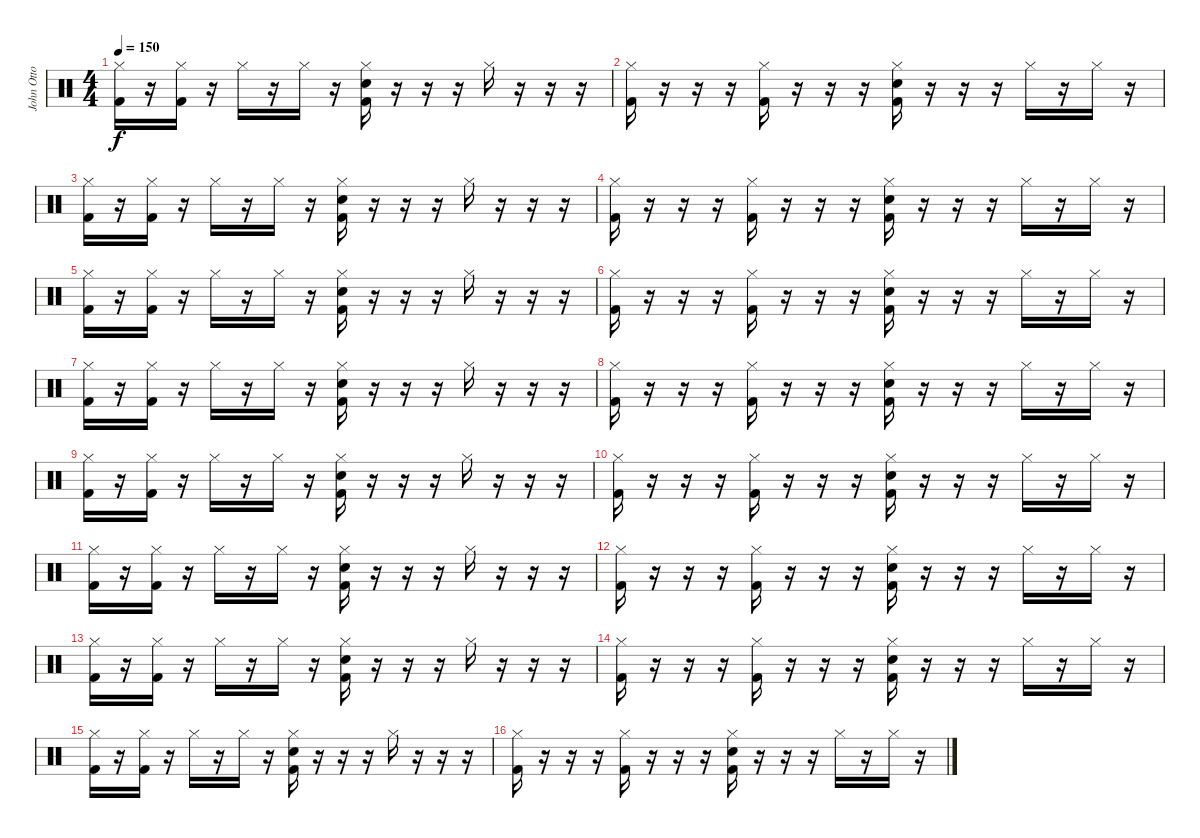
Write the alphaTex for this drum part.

\track ("John Otto" "John Otto") {instrument percussion}
\staff {score}
\articulation defaults
\ts (4 4)
\tempo 150
\clef neutral
\ks c
("Hi-Hat (closed)" "Kick (hit) 2").16{dy f} r.16 ("Hi-Hat (closed)" "Kick (hit) 2").16 r.16 "Hi-Hat (closed)".16 r.16 "Hi-Hat (closed)".16 r.16 ("Hi-Hat (closed)" "Snare (hit) 2" "Kick (hit) 2").16 r.16 r.16 r.16 "Hi-Hat (closed)".16 r.16 r.16 r.16 |
("Hi-Hat (closed)" "Kick (hit) 2").16 r.16 r.16 r.16 ("Hi-Hat (closed)" "Kick (hit) 2").16 r.16 r.16 r.16 ("Hi-Hat (closed)" "Snare (hit) 2" "Kick (hit) 2").16 r.16 r.16 r.16 "Hi-Hat (closed)".16 r.16 "Hi-Hat (closed)".16 r.16 |
("Hi-Hat (closed)" "Kick (hit) 2").16 r.16 ("Hi-Hat (closed)" "Kick (hit) 2").16 r.16 "Hi-Hat (closed)".16 r.16 "Hi-Hat (closed)".16 r.16 ("Hi-Hat (closed)" "Snare (hit) 2" "Kick (hit) 2").16 r.16 r.16 r.16 "Hi-Hat (closed)".16 r.16 r.16 r.16 |
("Hi-Hat (closed)" "Kick (hit) 2").16 r.16 r.16 r.16 ("Hi-Hat (closed)" "Kick (hit) 2").16 r.16 r.16 r.16 ("Hi-Hat (closed)" "Snare (hit) 2" "Kick (hit) 2").16 r.16 r.16 r.16 "Hi-Hat (closed)".16 r.16 "Hi-Hat (closed)".16 r.16 |
("Hi-Hat (closed)" "Kick (hit) 2").16 r.16 ("Hi-Hat (closed)" "Kick (hit) 2").16 r.16 "Hi-Hat (closed)".16 r.16 "Hi-Hat (closed)".16 r.16 ("Hi-Hat (closed)" "Snare (hit) 2" "Kick (hit) 2").16 r.16 r.16 r.16 "Hi-Hat (closed)".16 r.16 r.16 r.16 |
("Hi-Hat (closed)" "Kick (hit) 2").16 r.16 r.16 r.16 ("Hi-Hat (closed)" "Kick (hit) 2").16 r.16 r.16 r.16 ("Hi-Hat (closed)" "Snare (hit) 2" "Kick (hit) 2").16 r.16 r.16 r.16 "Hi-Hat (closed)".16 r.16 "Hi-Hat (closed)".16 r.16 |
("Hi-Hat (closed)" "Kick (hit) 2").16 r.16 ("Hi-Hat (closed)" "Kick (hit) 2").16 r.16 "Hi-Hat (closed)".16 r.16 "Hi-Hat (closed)".16 r.16 ("Hi-Hat (closed)" "Snare (hit) 2" "Kick (hit) 2").16 r.16 r.16 r.16 "Hi-Hat (closed)".16 r.16 r.16 r.16 |
("Hi-Hat (closed)" "Kick (hit) 2").16 r.16 r.16 r.16 ("Hi-Hat (closed)" "Kick (hit) 2").16 r.16 r.16 r.16 ("Hi-Hat (closed)" "Snare (hit) 2" "Kick (hit) 2").16 r.16 r.16 r.16 "Hi-Hat (closed)".16 r.16 "Hi-Hat (closed)".16 r.16 |
("Hi-Hat (closed)" "Kick (hit) 2").16 r.16 ("Hi-Hat (closed)" "Kick (hit) 2").16 r.16 "Hi-Hat (closed)".16 r.16 "Hi-Hat (closed)".16 r.16 ("Hi-Hat (closed)" "Snare (hit) 2" "Kick (hit) 2").16 r.16 r.16 r.16 "Hi-Hat (closed)".16 r.16 r.16 r.16 |
("Hi-Hat (closed)" "Kick (hit) 2").16 r.16 r.16 r.16 ("Hi-Hat (closed)" "Kick (hit) 2").16 r.16 r.16 r.16 ("Hi-Hat (closed)" "Snare (hit) 2" "Kick (hit) 2").16 r.16 r.16 r.16 "Hi-Hat (closed)".16 r.16 "Hi-Hat (closed)".16 r.16 |
("Hi-Hat (closed)" "Kick (hit) 2").16 r.16 ("Hi-Hat (closed)" "Kick (hit) 2").16 r.16 "Hi-Hat (closed)".16 r.16 "Hi-Hat (closed)".16 r.16 ("Hi-Hat (closed)" "Snare (hit) 2" "Kick (hit) 2").16 r.16 r.16 r.16 "Hi-Hat (closed)".16 r.16 r.16 r.16 |
("Hi-Hat (closed)" "Kick (hit) 2").16 r.16 r.16 r.16 ("Hi-Hat (closed)" "Kick (hit) 2").16 r.16 r.16 r.16 ("Hi-Hat (closed)" "Snare (hit) 2" "Kick (hit) 2").16 r.16 r.16 r.16 "Hi-Hat (closed)".16 r.16 "Hi-Hat (closed)".16 r.16 |
("Hi-Hat (closed)" "Kick (hit) 2").16 r.16 ("Hi-Hat (closed)" "Kick (hit) 2").16 r.16 "Hi-Hat (closed)".16 r.16 "Hi-Hat (closed)".16 r.16 ("Hi-Hat (closed)" "Snare (hit) 2" "Kick (hit) 2").16 r.16 r.16 r.16 "Hi-Hat (closed)".16 r.16 r.16 r.16 |
("Hi-Hat (closed)" "Kick (hit) 2").16 r.16 r.16 r.16 ("Hi-Hat (closed)" "Kick (hit) 2").16 r.16 r.16 r.16 ("Hi-Hat (closed)" "Snare (hit) 2" "Kick (hit) 2").16 r.16 r.16 r.16 "Hi-Hat (closed)".16 r.16 "Hi-Hat (closed)".16 r.16 |
("Hi-Hat (closed)" "Kick (hit) 2").16 r.16 ("Hi-Hat (closed)" "Kick (hit) 2").16 r.16 "Hi-Hat (closed)".16 r.16 "Hi-Hat (closed)".16 r.16 ("Hi-Hat (closed)" "Snare (hit) 2" "Kick (hit) 2").16 r.16 r.16 r.16 "Hi-Hat (closed)".16 r.16 r.16 r.16 |
("Hi-Hat (closed)" "Kick (hit) 2").16 r.16 r.16 r.16 ("Hi-Hat (closed)" "Kick (hit) 2").16 r.16 r.16 r.16 ("Hi-Hat (closed)" "Snare (hit) 2" "Kick (hit) 2").16 r.16 r.16 r.16 "Hi-Hat (closed)".16 r.16 "Hi-Hat (closed)".16 r.16
